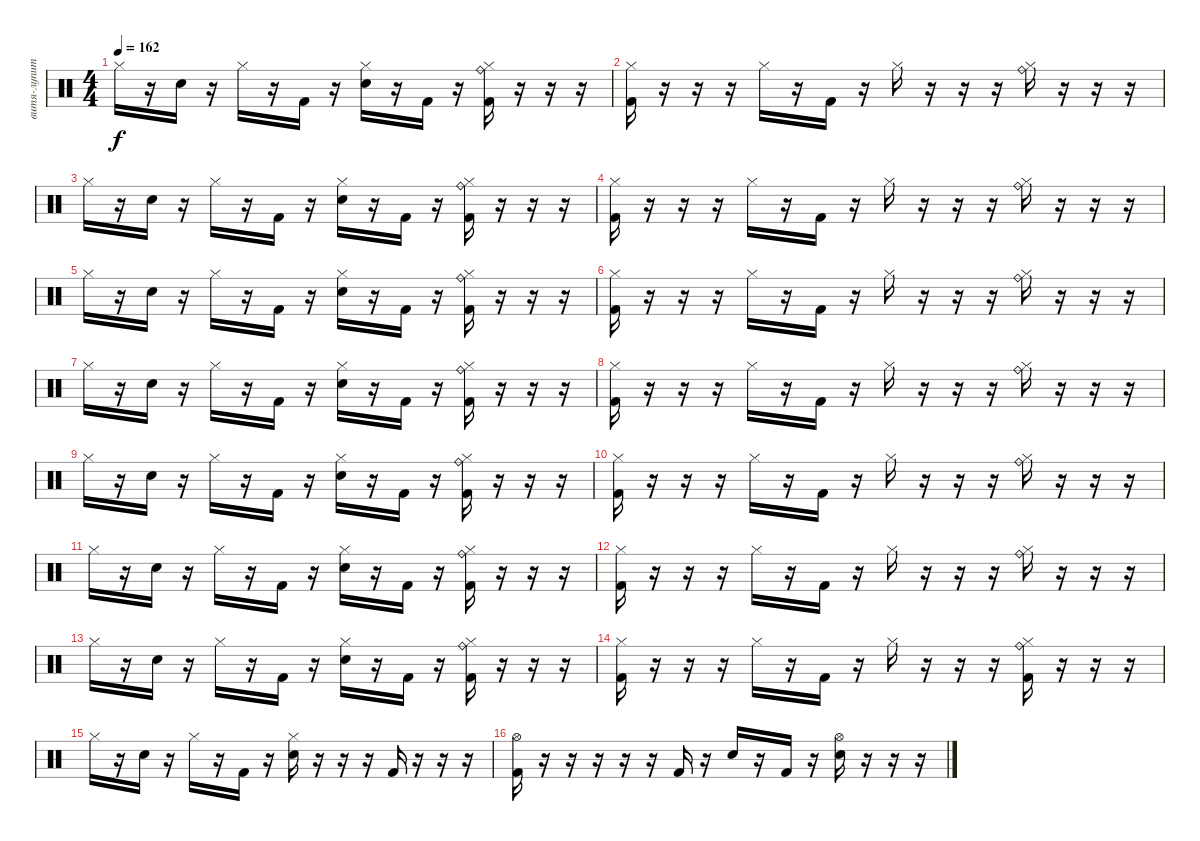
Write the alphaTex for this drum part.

\track ("витя-лупит" "витя-лупит") {instrument percussion}
\staff {score}
\articulation defaults
\ts (4 4)
\tempo 162
\clef neutral
\ks c "Hi-Hat (closed)".16{dy f}
r.16 "Snare (hit) 2".16 r.16 "Hi-Hat (closed)".16 r.16 "Kick (hit) 2".16 r.16 ("Snare (hit) 2" "Hi-Hat (closed)").16 r.16 "Kick (hit) 2".16 r.16 ("Kick (hit) 2" "Ride (bell)" "Hi-Hat (closed)").16 r.16 r.16 r.16 |
("Kick (hit) 2" "Hi-Hat (closed)").16 r.16 r.16 r.16 "Hi-Hat (closed)".16 r.16 "Kick (hit) 2".16 r.16 "Hi-Hat (closed)".16 r.16 r.16 r.16 ("Ride (bell)" "Hi-Hat (closed)").16 r.16 r.16 r.16 |
"Hi-Hat (closed)".16 r.16 "Snare (hit) 2".16 r.16 "Hi-Hat (closed)".16 r.16 "Kick (hit) 2".16 r.16 ("Snare (hit) 2" "Hi-Hat (closed)").16 r.16 "Kick (hit) 2".16 r.16 ("Kick (hit) 2" "Ride (bell)" "Hi-Hat (closed)").16 r.16 r.16 r.16 |
("Kick (hit) 2" "Hi-Hat (closed)").16 r.16 r.16 r.16 "Hi-Hat (closed)".16 r.16 "Kick (hit) 2".16 r.16 "Hi-Hat (closed)".16 r.16 r.16 r.16 ("Ride (bell)" "Hi-Hat (closed)").16 r.16 r.16 r.16 |
"Hi-Hat (closed)".16 r.16 "Snare (hit) 2".16 r.16 "Hi-Hat (closed)".16 r.16 "Kick (hit) 2".16 r.16 ("Snare (hit) 2" "Hi-Hat (closed)").16 r.16 "Kick (hit) 2".16 r.16 ("Kick (hit) 2" "Ride (bell)" "Hi-Hat (closed)").16 r.16 r.16 r.16 |
("Kick (hit) 2" "Hi-Hat (closed)").16 r.16 r.16 r.16 "Hi-Hat (closed)".16 r.16 "Kick (hit) 2".16 r.16 "Hi-Hat (closed)".16 r.16 r.16 r.16 ("Ride (bell)" "Hi-Hat (closed)").16 r.16 r.16 r.16 |
"Hi-Hat (closed)".16 r.16 "Snare (hit) 2".16 r.16 "Hi-Hat (closed)".16 r.16 "Kick (hit) 2".16 r.16 ("Snare (hit) 2" "Hi-Hat (closed)").16 r.16 "Kick (hit) 2".16 r.16 ("Kick (hit) 2" "Ride (bell)" "Hi-Hat (closed)").16 r.16 r.16 r.16 |
("Kick (hit) 2" "Hi-Hat (closed)").16 r.16 r.16 r.16 "Hi-Hat (closed)".16 r.16 "Kick (hit) 2".16 r.16 "Hi-Hat (closed)".16 r.16 r.16 r.16 ("Ride (bell)" "Hi-Hat (closed)").16 r.16 r.16 r.16 |
"Hi-Hat (closed)".16 r.16 "Snare (hit) 2".16 r.16 "Hi-Hat (closed)".16 r.16 "Kick (hit) 2".16 r.16 ("Snare (hit) 2" "Hi-Hat (closed)").16 r.16 "Kick (hit) 2".16 r.16 ("Kick (hit) 2" "Ride (bell)" "Hi-Hat (closed)").16 r.16 r.16 r.16 |
("Kick (hit) 2" "Hi-Hat (closed)").16 r.16 r.16 r.16 "Hi-Hat (closed)".16 r.16 "Kick (hit) 2".16 r.16 "Hi-Hat (closed)".16 r.16 r.16 r.16 ("Ride (bell)" "Hi-Hat (closed)").16 r.16 r.16 r.16 |
"Hi-Hat (closed)".16 r.16 "Snare (hit) 2".16 r.16 "Hi-Hat (closed)".16 r.16 "Kick (hit) 2".16 r.16 ("Snare (hit) 2" "Hi-Hat (closed)").16 r.16 "Kick (hit) 2".16 r.16 ("Kick (hit) 2" "Ride (bell)" "Hi-Hat (closed)").16 r.16 r.16 r.16 |
("Kick (hit) 2" "Hi-Hat (closed)").16 r.16 r.16 r.16 "Hi-Hat (closed)".16 r.16 "Kick (hit) 2".16 r.16 "Hi-Hat (closed)".16 r.16 r.16 r.16 ("Ride (bell)" "Hi-Hat (closed)").16 r.16 r.16 r.16 |
"Hi-Hat (closed)".16 r.16 "Snare (hit) 2".16 r.16 "Hi-Hat (closed)".16 r.16 "Kick (hit) 2".16 r.16 ("Snare (hit) 2" "Hi-Hat (closed)").16 r.16 "Kick (hit) 2".16 r.16 ("Kick (hit) 2" "Ride (bell)" "Hi-Hat (closed)").16 r.16 r.16 r.16 |
("Kick (hit) 2" "Hi-Hat (closed)").16 r.16 r.16 r.16 "Hi-Hat (closed)".16 r.16 "Kick (hit) 2".16 r.16 "Hi-Hat (closed)".16 r.16 r.16 r.16 ("Kick (hit) 2" "Ride (bell)" "Hi-Hat (closed)").16 r.16 r.16 r.16 |
"Hi-Hat (closed)".16 r.16 "Snare (hit) 2".16 r.16 "Hi-Hat (closed)".16 r.16 "Kick (hit) 2".16 r.16 ("Snare (hit) 2" "Hi-Hat (closed)").16 r.16 r.16 r.16 "Kick (hit) 2".16 r.16 r.16 r.16 |
("Kick (hit) 2" "Hi-Hat (open)").16 r.16 r.16 r.16 r.16 r.16 "Kick (hit) 2".16 r.16 "Snare (hit) 2".16 r.16 "Kick (hit) 2".16 r.16 ("Snare (hit) 2" "Hi-Hat (open)").16 r.16 r.16 r.16
